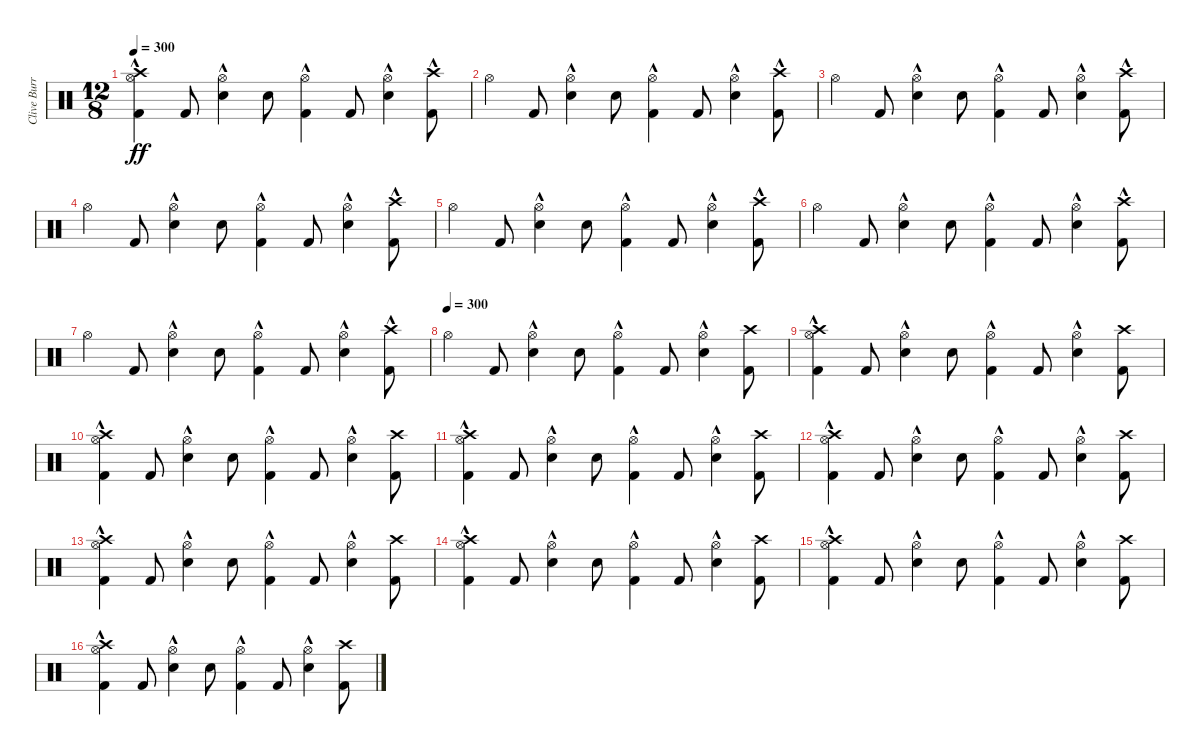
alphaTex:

\track ("Clive Burr" "Clive Burr") {instrument percussion}
\staff {score}
\articulation defaults
\ts (12 8)
\tempo 300
\clef neutral
\ks c
("Kick (hit) 2"{hac} "Hi-Hat (open)" "Crash high (hit)").4{dy ff} "Kick (hit) 2".8 ("Snare (hit) 2"{hac} "Hi-Hat (open)").4 "Snare (hit) 2".8 ("Kick (hit) 2"{hac} "Hi-Hat (open)").4 "Kick (hit) 2".8 ("Snare (hit) 2"{hac} "Hi-Hat (open)").4 ("Kick (hit) 2" "Crash high (hit)"{hac}).8 |
"Hi-Hat (open)".4 "Kick (hit) 2".8 ("Snare (hit) 2"{hac} "Hi-Hat (open)").4 "Snare (hit) 2".8 ("Kick (hit) 2"{hac} "Hi-Hat (open)").4 "Kick (hit) 2".8 ("Snare (hit) 2"{hac} "Hi-Hat (open)").4 ("Kick (hit) 2" "Crash high (hit)"{hac}).8 |
"Hi-Hat (open)".4 "Kick (hit) 2".8 ("Snare (hit) 2"{hac} "Hi-Hat (open)").4 "Snare (hit) 2".8 ("Kick (hit) 2"{hac} "Hi-Hat (open)").4 "Kick (hit) 2".8 ("Snare (hit) 2"{hac} "Hi-Hat (open)").4 ("Kick (hit) 2" "Crash high (hit)"{hac}).8 |
"Hi-Hat (open)".4 "Kick (hit) 2".8 ("Snare (hit) 2"{hac} "Hi-Hat (open)").4 "Snare (hit) 2".8 ("Kick (hit) 2"{hac} "Hi-Hat (open)").4 "Kick (hit) 2".8 ("Snare (hit) 2"{hac} "Hi-Hat (open)").4 ("Kick (hit) 2" "Crash high (hit)"{hac}).8 |
"Hi-Hat (open)".4 "Kick (hit) 2".8 ("Snare (hit) 2"{hac} "Hi-Hat (open)").4 "Snare (hit) 2".8 ("Kick (hit) 2"{hac} "Hi-Hat (open)").4 "Kick (hit) 2".8 ("Snare (hit) 2"{hac} "Hi-Hat (open)").4 ("Kick (hit) 2" "Crash high (hit)"{hac}).8 |
"Hi-Hat (open)".4 "Kick (hit) 2".8 ("Snare (hit) 2"{hac} "Hi-Hat (open)").4 "Snare (hit) 2".8 ("Kick (hit) 2"{hac} "Hi-Hat (open)").4 "Kick (hit) 2".8 ("Snare (hit) 2"{hac} "Hi-Hat (open)").4 ("Kick (hit) 2" "Crash high (hit)"{hac}).8 |
"Hi-Hat (open)".4 "Kick (hit) 2".8 ("Snare (hit) 2"{hac} "Hi-Hat (open)").4 "Snare (hit) 2".8 ("Kick (hit) 2"{hac} "Hi-Hat (open)").4 "Kick (hit) 2".8 ("Snare (hit) 2"{hac} "Hi-Hat (open)").4 ("Kick (hit) 2" "Crash high (hit)"{hac}).8 |
\tempo (300)
"Hi-Hat (open)".4 "Kick (hit) 2".8 ("Snare (hit) 2"{hac} "Hi-Hat (open)").4 "Snare (hit) 2".8 ("Kick (hit) 2"{hac} "Hi-Hat (open)").4 "Kick (hit) 2".8 ("Snare (hit) 2"{hac} "Hi-Hat (open)").4 ("Kick (hit) 2" "Crash high (hit)").8 |
("Kick (hit) 2"{hac} "Hi-Hat (open)" "Crash high (hit)").4 "Kick (hit) 2".8 ("Snare (hit) 2"{hac} "Hi-Hat (open)").4 "Snare (hit) 2".8 ("Kick (hit) 2"{hac} "Hi-Hat (open)").4 "Kick (hit) 2".8 ("Snare (hit) 2"{hac} "Hi-Hat (open)").4 ("Kick (hit) 2" "Crash high (hit)").8 |
("Kick (hit) 2"{hac} "Hi-Hat (open)" "Crash high (hit)").4 "Kick (hit) 2".8 ("Snare (hit) 2"{hac} "Hi-Hat (open)").4 "Snare (hit) 2".8 ("Kick (hit) 2"{hac} "Hi-Hat (open)").4 "Kick (hit) 2".8 ("Snare (hit) 2"{hac} "Hi-Hat (open)").4 ("Kick (hit) 2" "Crash high (hit)").8 |
("Kick (hit) 2"{hac} "Hi-Hat (open)" "Crash high (hit)").4 "Kick (hit) 2".8 ("Snare (hit) 2"{hac} "Hi-Hat (open)").4 "Snare (hit) 2".8 ("Kick (hit) 2"{hac} "Hi-Hat (open)").4 "Kick (hit) 2".8 ("Snare (hit) 2"{hac} "Hi-Hat (open)").4 ("Kick (hit) 2" "Crash high (hit)").8 |
("Kick (hit) 2"{hac} "Hi-Hat (open)" "Crash high (hit)").4 "Kick (hit) 2".8 ("Snare (hit) 2"{hac} "Hi-Hat (open)").4 "Snare (hit) 2".8 ("Kick (hit) 2"{hac} "Hi-Hat (open)").4 "Kick (hit) 2".8 ("Snare (hit) 2"{hac} "Hi-Hat (open)").4 ("Kick (hit) 2" "Crash high (hit)").8 |
("Kick (hit) 2"{hac} "Hi-Hat (open)" "Crash high (hit)").4 "Kick (hit) 2".8 ("Snare (hit) 2"{hac} "Hi-Hat (open)").4 "Snare (hit) 2".8 ("Kick (hit) 2"{hac} "Hi-Hat (open)").4 "Kick (hit) 2".8 ("Snare (hit) 2"{hac} "Hi-Hat (open)").4 ("Kick (hit) 2" "Crash high (hit)").8 |
("Kick (hit) 2"{hac} "Hi-Hat (open)" "Crash high (hit)").4 "Kick (hit) 2".8 ("Snare (hit) 2"{hac} "Hi-Hat (open)").4 "Snare (hit) 2".8 ("Kick (hit) 2"{hac} "Hi-Hat (open)").4 "Kick (hit) 2".8 ("Snare (hit) 2"{hac} "Hi-Hat (open)").4 ("Kick (hit) 2" "Crash high (hit)").8 |
("Kick (hit) 2"{hac} "Hi-Hat (open)" "Crash high (hit)").4 "Kick (hit) 2".8 ("Snare (hit) 2"{hac} "Hi-Hat (open)").4 "Snare (hit) 2".8 ("Kick (hit) 2"{hac} "Hi-Hat (open)").4 "Kick (hit) 2".8 ("Snare (hit) 2"{hac} "Hi-Hat (open)").4 ("Kick (hit) 2" "Crash high (hit)").8 |
("Kick (hit) 2"{hac} "Hi-Hat (open)" "Crash high (hit)").4 "Kick (hit) 2".8 ("Snare (hit) 2"{hac} "Hi-Hat (open)").4 "Snare (hit) 2".8 ("Kick (hit) 2"{hac} "Hi-Hat (open)").4 "Kick (hit) 2".8 ("Snare (hit) 2"{hac} "Hi-Hat (open)").4 ("Kick (hit) 2" "Crash high (hit)").8
